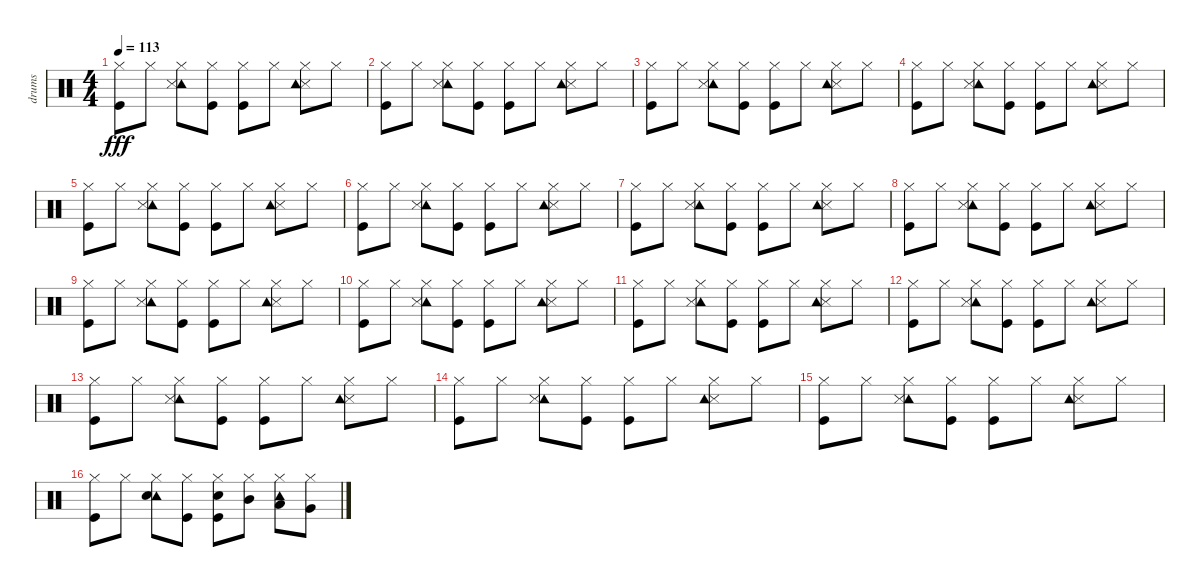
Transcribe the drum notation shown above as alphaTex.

\track ("drums" "drums") {instrument percussion}
\staff {score}
\articulation defaults
\ts (4 4)
\tempo 113
\clef neutral
\ks c
("Kick (hit)" "Hi-Hat (closed)").8{dy fff} "Hi-Hat (closed)".8 ("Tambourine (hit)" "Snare (side stick) 3" "Hi-Hat (closed)").8 ("Kick (hit)" "Hi-Hat (closed)").8 ("Kick (hit)" "Hi-Hat (closed)").8 "Hi-Hat (closed)".8 ("Snare (side stick) 3" "Hi-Hat (closed)" "Tambourine (hit)").8 "Hi-Hat (closed)".8 |
("Kick (hit)" "Hi-Hat (closed)").8 "Hi-Hat (closed)".8 ("Tambourine (hit)" "Hi-Hat (closed)" "Snare (side stick) 3").8 ("Kick (hit)" "Hi-Hat (closed)").8 ("Kick (hit)" "Hi-Hat (closed)").8 "Hi-Hat (closed)".8 ("Snare (side stick) 3" "Hi-Hat (closed)" "Tambourine (hit)").8 "Hi-Hat (closed)".8 |
("Kick (hit)" "Hi-Hat (closed)").8 "Hi-Hat (closed)".8 ("Tambourine (hit)" "Snare (side stick) 3" "Hi-Hat (closed)").8 ("Kick (hit)" "Hi-Hat (closed)").8 ("Kick (hit)" "Hi-Hat (closed)").8 "Hi-Hat (closed)".8 ("Hi-Hat (closed)" "Snare (side stick) 3" "Tambourine (hit)").8 "Hi-Hat (closed)".8 |
("Kick (hit)" "Hi-Hat (closed)").8 "Hi-Hat (closed)".8 ("Tambourine (hit)" "Hi-Hat (closed)" "Snare (side stick) 3").8 ("Kick (hit)" "Hi-Hat (closed)").8 ("Kick (hit)" "Hi-Hat (closed)").8 "Hi-Hat (closed)".8 ("Hi-Hat (closed)" "Snare (side stick) 3" "Tambourine (hit)").8 "Hi-Hat (closed)".8 |
("Kick (hit)" "Hi-Hat (closed)").8 "Hi-Hat (closed)".8 ("Tambourine (hit)" "Snare (side stick) 3" "Hi-Hat (closed)").8 ("Kick (hit)" "Hi-Hat (closed)").8 ("Kick (hit)" "Hi-Hat (closed)").8 "Hi-Hat (closed)".8 ("Snare (side stick) 3" "Hi-Hat (closed)" "Tambourine (hit)").8 "Hi-Hat (closed)".8 |
("Kick (hit)" "Hi-Hat (closed)").8 "Hi-Hat (closed)".8 ("Tambourine (hit)" "Hi-Hat (closed)" "Snare (side stick) 3").8 ("Kick (hit)" "Hi-Hat (closed)").8 ("Kick (hit)" "Hi-Hat (closed)").8 "Hi-Hat (closed)".8 ("Snare (side stick) 3" "Hi-Hat (closed)" "Tambourine (hit)").8 "Hi-Hat (closed)".8 |
("Kick (hit)" "Hi-Hat (closed)").8 "Hi-Hat (closed)".8 ("Tambourine (hit)" "Snare (side stick) 3" "Hi-Hat (closed)").8 ("Kick (hit)" "Hi-Hat (closed)").8 ("Kick (hit)" "Hi-Hat (closed)").8 "Hi-Hat (closed)".8 ("Hi-Hat (closed)" "Snare (side stick) 3" "Tambourine (hit)").8 "Hi-Hat (closed)".8 |
("Kick (hit)" "Hi-Hat (closed)").8 "Hi-Hat (closed)".8 ("Tambourine (hit)" "Hi-Hat (closed)" "Snare (side stick) 3").8 ("Kick (hit)" "Hi-Hat (closed)").8 ("Kick (hit)" "Hi-Hat (closed)").8 "Hi-Hat (closed)".8 ("Hi-Hat (closed)" "Snare (side stick) 3" "Tambourine (hit)").8 "Hi-Hat (closed)".8 |
("Kick (hit)" "Hi-Hat (closed)").8 "Hi-Hat (closed)".8 ("Tambourine (hit)" "Snare (side stick) 3" "Hi-Hat (closed)").8 ("Kick (hit)" "Hi-Hat (closed)").8 ("Kick (hit)" "Hi-Hat (closed)").8 "Hi-Hat (closed)".8 ("Snare (side stick) 3" "Hi-Hat (closed)" "Tambourine (hit)").8 "Hi-Hat (closed)".8 |
("Kick (hit)" "Hi-Hat (closed)").8 "Hi-Hat (closed)".8 ("Tambourine (hit)" "Hi-Hat (closed)" "Snare (side stick) 3").8 ("Kick (hit)" "Hi-Hat (closed)").8 ("Kick (hit)" "Hi-Hat (closed)").8 "Hi-Hat (closed)".8 ("Snare (side stick) 3" "Hi-Hat (closed)" "Tambourine (hit)").8 "Hi-Hat (closed)".8 |
("Kick (hit)" "Hi-Hat (closed)").8 "Hi-Hat (closed)".8 ("Tambourine (hit)" "Snare (side stick) 3" "Hi-Hat (closed)").8 ("Kick (hit)" "Hi-Hat (closed)").8 ("Kick (hit)" "Hi-Hat (closed)").8 "Hi-Hat (closed)".8 ("Hi-Hat (closed)" "Snare (side stick) 3" "Tambourine (hit)").8 "Hi-Hat (closed)".8 |
("Kick (hit)" "Hi-Hat (closed)").8 "Hi-Hat (closed)".8 ("Tambourine (hit)" "Hi-Hat (closed)" "Snare (side stick) 3").8 ("Kick (hit)" "Hi-Hat (closed)").8 ("Kick (hit)" "Hi-Hat (closed)").8 "Hi-Hat (closed)".8 ("Hi-Hat (closed)" "Snare (side stick) 3" "Tambourine (hit)").8 "Hi-Hat (closed)".8 |
("Kick (hit)" "Hi-Hat (closed)").8 "Hi-Hat (closed)".8 ("Tambourine (hit)" "Snare (side stick) 3" "Hi-Hat (closed)").8 ("Kick (hit)" "Hi-Hat (closed)").8 ("Kick (hit)" "Hi-Hat (closed)").8 "Hi-Hat (closed)".8 ("Snare (side stick) 3" "Hi-Hat (closed)" "Tambourine (hit)").8 "Hi-Hat (closed)".8 |
("Kick (hit)" "Hi-Hat (closed)").8 "Hi-Hat (closed)".8 ("Tambourine (hit)" "Hi-Hat (closed)" "Snare (side stick) 3").8 ("Kick (hit)" "Hi-Hat (closed)").8 ("Kick (hit)" "Hi-Hat (closed)").8 "Hi-Hat (closed)".8 ("Snare (side stick) 3" "Hi-Hat (closed)" "Tambourine (hit)").8 "Hi-Hat (closed)".8 |
("Kick (hit)" "Hi-Hat (closed)").8 "Hi-Hat (closed)".8 ("Tambourine (hit)" "Snare (side stick) 3" "Hi-Hat (closed)").8 ("Kick (hit)" "Hi-Hat (closed)").8 ("Kick (hit)" "Hi-Hat (closed)").8 "Hi-Hat (closed)".8 ("Hi-Hat (closed)" "Snare (side stick) 3" "Tambourine (hit)").8 "Hi-Hat (closed)".8 |
("Kick (hit)" "Hi-Hat (closed)").8 "Hi-Hat (closed)".8 ("Tambourine (hit)" "Electric Snare (hit)" "Hi-Hat (closed)").8 ("Kick (hit)" "Hi-Hat (closed)").8 ("Electric Snare (hit)" "Kick (hit)" "Hi-Hat (closed)").8 ("Mid Tom (hit)" "Hi-Hat (closed)").8 ("Low Tom (hit)" "Hi-Hat (closed)" "Tambourine (hit)").8 ("Very Low Tom (hit)" "Hi-Hat (closed)").8
